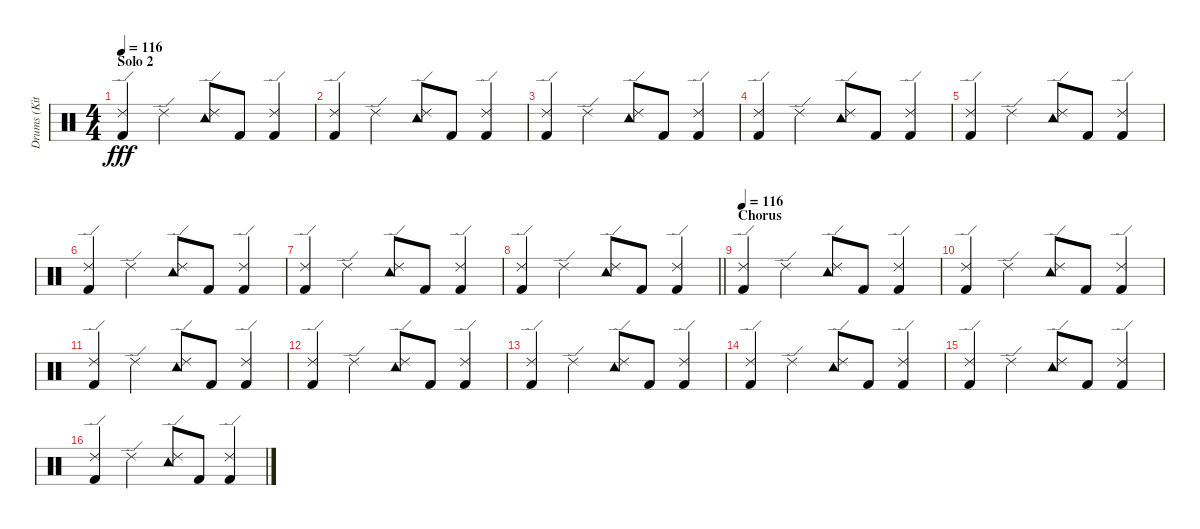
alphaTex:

\track ("Drums (Kit)" "Drums (Kit") {instrument percussion}
\staff {score}
\articulation defaults
\ts (4 4)
\section ("" "Solo 2")
\tempo 116
\clef neutral
\ks c
("Kick (hit) 2" "Ride (edge) 2").4{dy fff} "Ride (edge) 2".4 ("Ride (edge) 2" "Tambourine (hit)").8 "Kick (hit) 2".8 ("Ride (edge) 2" "Kick (hit) 2").4 |
("Ride (edge) 2" "Kick (hit) 2").4 "Ride (edge) 2".4 ("Ride (edge) 2" "Tambourine (hit)").8 "Kick (hit) 2".8 ("Ride (edge) 2" "Kick (hit) 2").4 |
("Kick (hit) 2" "Ride (edge) 2").4 "Ride (edge) 2".4 ("Ride (edge) 2" "Tambourine (hit)").8 "Kick (hit) 2".8 ("Ride (edge) 2" "Kick (hit) 2").4 |
("Ride (edge) 2" "Kick (hit) 2").4 "Ride (edge) 2".4 ("Ride (edge) 2" "Tambourine (hit)").8 "Kick (hit) 2".8 ("Ride (edge) 2" "Kick (hit) 2").4 |
("Kick (hit) 2" "Ride (edge) 2").4 "Ride (edge) 2".4 ("Ride (edge) 2" "Tambourine (hit)").8 "Kick (hit) 2".8 ("Ride (edge) 2" "Kick (hit) 2").4 |
("Ride (edge) 2" "Kick (hit) 2").4 "Ride (edge) 2".4 ("Ride (edge) 2" "Tambourine (hit)").8 "Kick (hit) 2".8 ("Ride (edge) 2" "Kick (hit) 2").4 |
("Kick (hit) 2" "Ride (edge) 2").4 "Ride (edge) 2".4 ("Ride (edge) 2" "Tambourine (hit)").8 "Kick (hit) 2".8 ("Ride (edge) 2" "Kick (hit) 2").4 |
\barLineRight lightlight
("Ride (edge) 2" "Kick (hit) 2").4 "Ride (edge) 2".4 ("Ride (edge) 2" "Tambourine (hit)").8 "Kick (hit) 2".8 ("Ride (edge) 2" "Kick (hit) 2").4 |
\section ("" "Chorus")
\tempo 116
("Kick (hit) 2" "Ride (edge) 2").4 "Ride (edge) 2".4 ("Ride (edge) 2" "Tambourine (hit)").8 "Kick (hit) 2".8 ("Ride (edge) 2" "Kick (hit) 2").4 |
("Ride (edge) 2" "Kick (hit) 2").4 "Ride (edge) 2".4 ("Ride (edge) 2" "Tambourine (hit)").8 "Kick (hit) 2".8 ("Ride (edge) 2" "Kick (hit) 2").4 |
("Kick (hit) 2" "Ride (edge) 2").4 "Ride (edge) 2".4 ("Ride (edge) 2" "Tambourine (hit)").8 "Kick (hit) 2".8 ("Ride (edge) 2" "Kick (hit) 2").4 |
("Ride (edge) 2" "Kick (hit) 2").4 "Ride (edge) 2".4 ("Ride (edge) 2" "Tambourine (hit)").8 "Kick (hit) 2".8 ("Ride (edge) 2" "Kick (hit) 2").4 |
("Kick (hit) 2" "Ride (edge) 2").4 "Ride (edge) 2".4 ("Ride (edge) 2" "Tambourine (hit)").8 "Kick (hit) 2".8 ("Ride (edge) 2" "Kick (hit) 2").4 |
("Ride (edge) 2" "Kick (hit) 2").4 "Ride (edge) 2".4 ("Ride (edge) 2" "Tambourine (hit)").8 "Kick (hit) 2".8 ("Ride (edge) 2" "Kick (hit) 2").4 |
("Kick (hit) 2" "Ride (edge) 2").4 "Ride (edge) 2".4 ("Ride (edge) 2" "Tambourine (hit)").8 "Kick (hit) 2".8 ("Ride (edge) 2" "Kick (hit) 2").4 |
("Ride (edge) 2" "Kick (hit) 2").4 "Ride (edge) 2".4 ("Ride (edge) 2" "Tambourine (hit)").8 "Kick (hit) 2".8 ("Ride (edge) 2" "Kick (hit) 2").4
